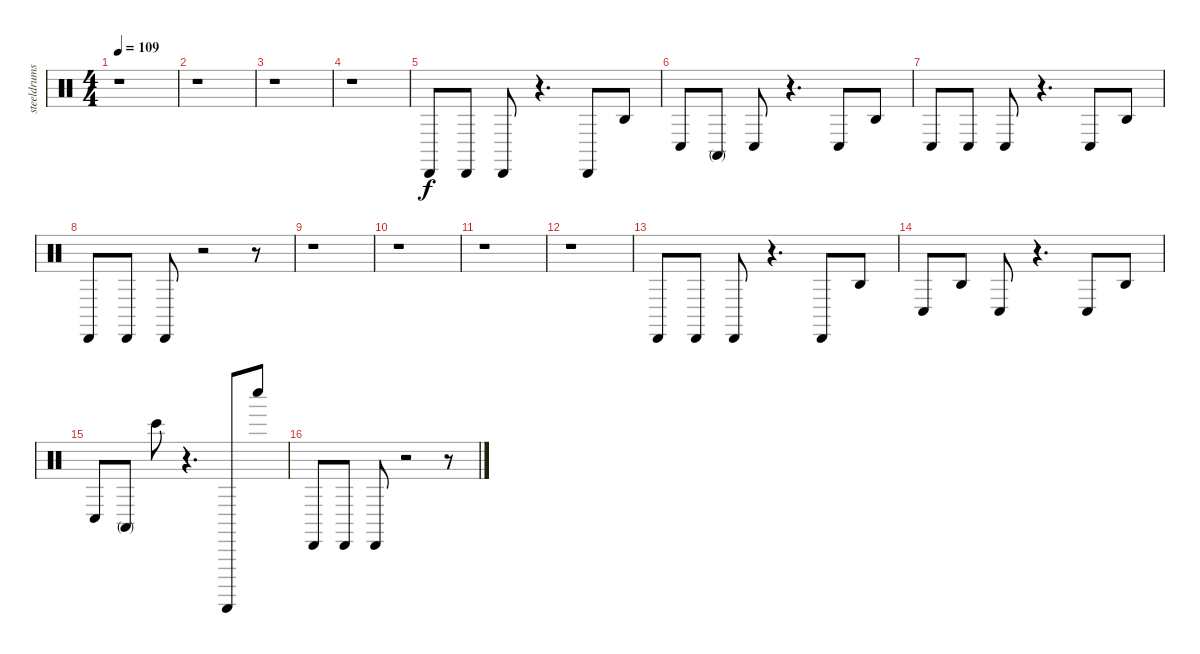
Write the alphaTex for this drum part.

\track ("steeldrums" "steeldrums") {instrument percussion}
\staff {score}
\articulation defaults
\ts (4 4)
\tempo 109
\clef neutral
\ks c
r.1{dy f} |
r.1 |
r.1 |
r.1 |
"Cabasa (hit)".8 "Cabasa (hit)".8 "Cabasa (hit)".8 r.4{d} "Cabasa (hit)".8 "Agogo high (hit)".8 |
"Conga low (hit)".8 "Conga high (mute)".8 "Conga low (hit)".8 r.4{d} "Conga low (hit)".8 "Agogo high (hit)".8 |
"Conga low (hit)".8 "Conga low (hit)".8 "Conga low (hit)".8 r.4{d} "Conga low (hit)".8 "Agogo high (hit)".8 |
"Cabasa (hit)".8 "Cabasa (hit)".8 "Cabasa (hit)".8 r.2 r.8 |
r.1 |
r.1 |
r.1 |
r.1 |
"Cabasa (hit)".8 "Cabasa (hit)".8 "Cabasa (hit)".8 r.4{d} "Cabasa (hit)".8 "Agogo high (hit)".8 |
"Conga low (hit)".8 "Agogo high (hit)".8 "Conga low (hit)".8 r.4{d} "Conga low (hit)".8 "Agogo high (hit)".8 |
"Conga low (hit)".8 "Conga high (mute)".8 "Bongo High (hit)".8 r.4{d} "Guiro (scrap-return)".8 "Whistle low (hit)".8 |
"Cabasa (hit)".8 "Cabasa (hit)".8 "Cabasa (hit)".8 r.2 r.8
